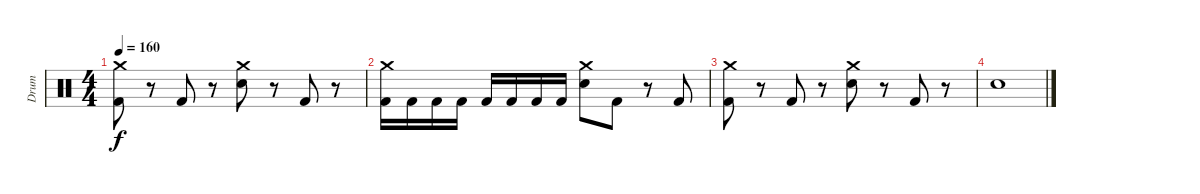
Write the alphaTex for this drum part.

\track ("Drum" "Drum") {instrument percussion}
\staff {score}
\articulation defaults
\ts (4 4)
\tempo 160
\clef neutral
\ks c
("Crash medium (hit)" "Kick (hit) 2").8{dy f} r.8 "Kick (hit) 2".8 r.8 ("Crash medium (hit)" "Electric Snare (hit)").8 r.8 "Kick (hit) 2".8 r.8 |
("Crash medium (hit)" "Kick (hit) 2").16 "Kick (hit) 2".16 "Kick (hit) 2".16 "Kick (hit) 2".16 "Kick (hit) 2".16 "Kick (hit) 2".16 "Kick (hit) 2".16 "Kick (hit) 2".16 ("Crash medium (hit)" "Electric Snare (hit)").8 "Kick (hit) 2".8 r.8 "Kick (hit) 2".8 |
("Crash medium (hit)" "Kick (hit) 2").8 r.8 "Kick (hit) 2".8 r.8 ("Crash medium (hit)" "Electric Snare (hit)").8 r.8 "Kick (hit) 2".8 r.8 |
"Electric Snare (hit)".1
